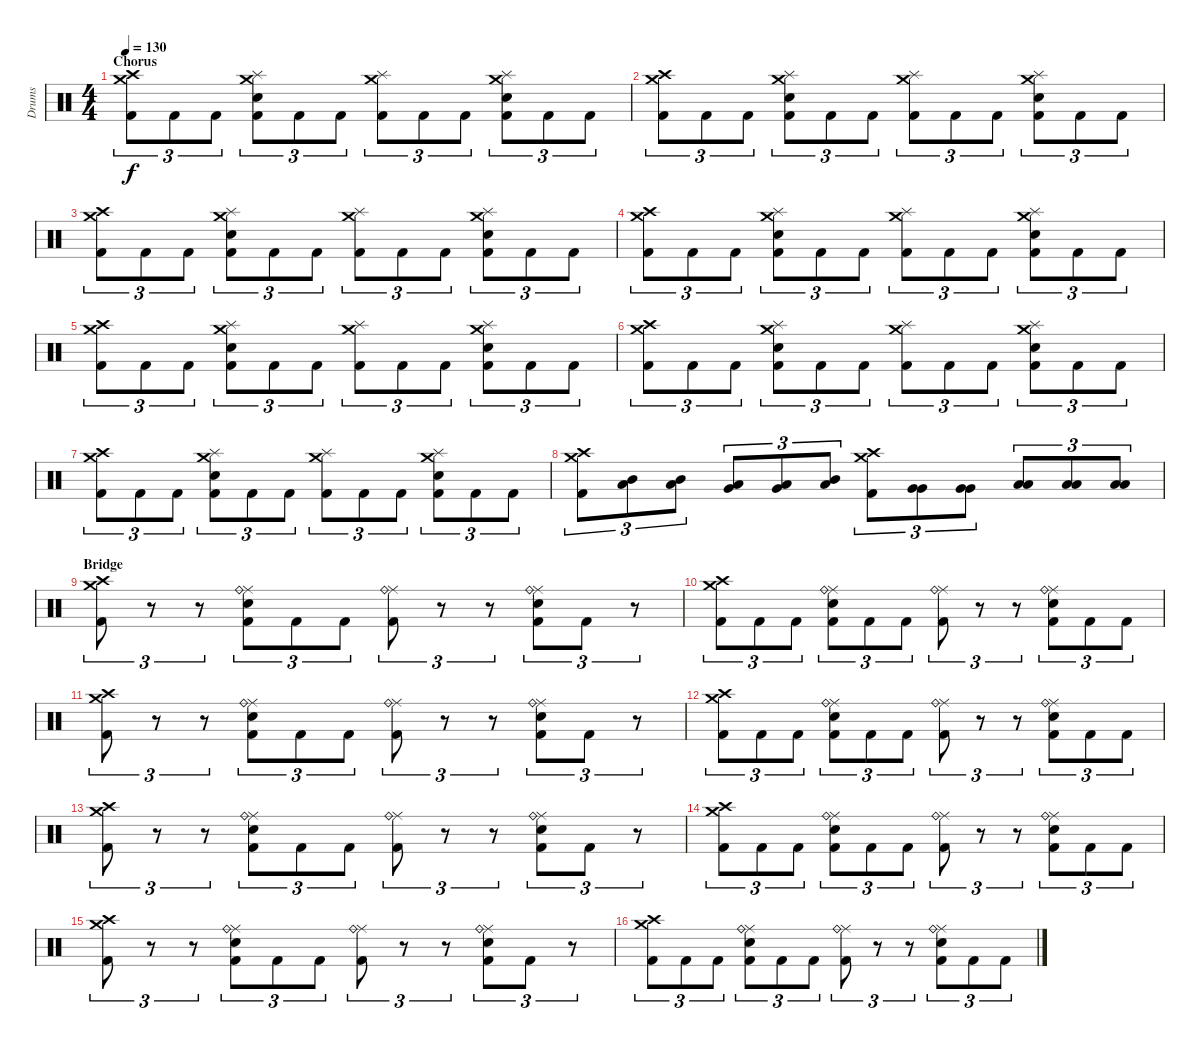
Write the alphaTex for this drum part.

\track ("Drums" "Drums") {instrument percussion}
\staff {score}
\articulation defaults
\ts (4 4)
\section ("" "Chorus")
\tempo 130
\clef neutral
\ks c
("Crash medium (hit)" "Crash high (hit)" "Kick (hit) 2").8{tu (3 2) dy f} "Kick (hit) 2".8{tu (3 2)} "Kick (hit) 2".8{tu (3 2)} ("Crash medium (hit)" "Splash (hit)" "Snare (hit) 2" "Kick (hit) 2").8{tu (3 2)} "Kick (hit) 2".8{tu (3 2)} "Kick (hit) 2".8{tu (3 2)} ("Crash medium (hit)" "Splash (hit)" "Kick (hit) 2").8{tu (3 2)} "Kick (hit) 2".8{tu (3 2)} "Kick (hit) 2".8{tu (3 2)} ("Crash medium (hit)" "Splash (hit)" "Snare (hit) 2" "Kick (hit) 2").8{tu (3 2)} "Kick (hit) 2".8{tu (3 2)} "Kick (hit) 2".8{tu (3 2)} |
("Crash medium (hit)" "Crash high (hit)" "Kick (hit) 2").8{tu (3 2)} "Kick (hit) 2".8{tu (3 2)} "Kick (hit) 2".8{tu (3 2)} ("Crash medium (hit)" "Splash (hit)" "Snare (hit) 2" "Kick (hit) 2").8{tu (3 2)} "Kick (hit) 2".8{tu (3 2)} "Kick (hit) 2".8{tu (3 2)} ("Crash medium (hit)" "Splash (hit)" "Kick (hit) 2").8{tu (3 2)} "Kick (hit) 2".8{tu (3 2)} "Kick (hit) 2".8{tu (3 2)} ("Crash medium (hit)" "Splash (hit)" "Snare (hit) 2" "Kick (hit) 2").8{tu (3 2)} "Kick (hit) 2".8{tu (3 2)} "Kick (hit) 2".8{tu (3 2)} |
("Crash medium (hit)" "Crash high (hit)" "Kick (hit) 2").8{tu (3 2)} "Kick (hit) 2".8{tu (3 2)} "Kick (hit) 2".8{tu (3 2)} ("Crash medium (hit)" "Splash (hit)" "Snare (hit) 2" "Kick (hit) 2").8{tu (3 2)} "Kick (hit) 2".8{tu (3 2)} "Kick (hit) 2".8{tu (3 2)} ("Crash medium (hit)" "Splash (hit)" "Kick (hit) 2").8{tu (3 2)} "Kick (hit) 2".8{tu (3 2)} "Kick (hit) 2".8{tu (3 2)} ("Crash medium (hit)" "Splash (hit)" "Snare (hit) 2" "Kick (hit) 2").8{tu (3 2)} "Kick (hit) 2".8{tu (3 2)} "Kick (hit) 2".8{tu (3 2)} |
("Crash medium (hit)" "Crash high (hit)" "Kick (hit) 2").8{tu (3 2)} "Kick (hit) 2".8{tu (3 2)} "Kick (hit) 2".8{tu (3 2)} ("Crash medium (hit)" "Splash (hit)" "Snare (hit) 2" "Kick (hit) 2").8{tu (3 2)} "Kick (hit) 2".8{tu (3 2)} "Kick (hit) 2".8{tu (3 2)} ("Crash medium (hit)" "Splash (hit)" "Kick (hit) 2").8{tu (3 2)} "Kick (hit) 2".8{tu (3 2)} "Kick (hit) 2".8{tu (3 2)} ("Crash medium (hit)" "Splash (hit)" "Snare (hit) 2" "Kick (hit) 2").8{tu (3 2)} "Kick (hit) 2".8{tu (3 2)} "Kick (hit) 2".8{tu (3 2)} |
("Crash medium (hit)" "Crash high (hit)" "Kick (hit) 2").8{tu (3 2)} "Kick (hit) 2".8{tu (3 2)} "Kick (hit) 2".8{tu (3 2)} ("Crash medium (hit)" "Splash (hit)" "Snare (hit) 2" "Kick (hit) 2").8{tu (3 2)} "Kick (hit) 2".8{tu (3 2)} "Kick (hit) 2".8{tu (3 2)} ("Crash medium (hit)" "Splash (hit)" "Kick (hit) 2").8{tu (3 2)} "Kick (hit) 2".8{tu (3 2)} "Kick (hit) 2".8{tu (3 2)} ("Crash medium (hit)" "Splash (hit)" "Snare (hit) 2" "Kick (hit) 2").8{tu (3 2)} "Kick (hit) 2".8{tu (3 2)} "Kick (hit) 2".8{tu (3 2)} |
("Crash medium (hit)" "Crash high (hit)" "Kick (hit) 2").8{tu (3 2)} "Kick (hit) 2".8{tu (3 2)} "Kick (hit) 2".8{tu (3 2)} ("Crash medium (hit)" "Splash (hit)" "Snare (hit) 2" "Kick (hit) 2").8{tu (3 2)} "Kick (hit) 2".8{tu (3 2)} "Kick (hit) 2".8{tu (3 2)} ("Crash medium (hit)" "Splash (hit)" "Kick (hit) 2").8{tu (3 2)} "Kick (hit) 2".8{tu (3 2)} "Kick (hit) 2".8{tu (3 2)} ("Crash medium (hit)" "Splash (hit)" "Snare (hit) 2" "Kick (hit) 2").8{tu (3 2)} "Kick (hit) 2".8{tu (3 2)} "Kick (hit) 2".8{tu (3 2)} |
("Crash medium (hit)" "Crash high (hit)" "Kick (hit) 2").8{tu (3 2)} "Kick (hit) 2".8{tu (3 2)} "Kick (hit) 2".8{tu (3 2)} ("Crash medium (hit)" "Splash (hit)" "Snare (hit) 2" "Kick (hit) 2").8{tu (3 2)} "Kick (hit) 2".8{tu (3 2)} "Kick (hit) 2".8{tu (3 2)} ("Crash medium (hit)" "Splash (hit)" "Kick (hit) 2").8{tu (3 2)} "Kick (hit) 2".8{tu (3 2)} "Kick (hit) 2".8{tu (3 2)} ("Crash medium (hit)" "Splash (hit)" "Snare (hit) 2" "Kick (hit) 2").8{tu (3 2)} "Kick (hit) 2".8{tu (3 2)} "Kick (hit) 2".8{tu (3 2)} |
("Crash medium (hit)" "Crash high (hit)" "Kick (hit) 2").8{tu (3 2)} ("Mid Tom (hit)" "Low Tom (hit)").8{tu (3 2)} ("Mid Tom (hit)" "Low Tom (hit)").8{tu (3 2)} ("Low Tom (hit)" "Very Low Tom (hit)").8{tu (3 2)} ("Low Tom (hit)" "Very Low Tom (hit)").8{tu (3 2)} ("Mid Tom (hit)" "Low Tom (hit)").8{tu (3 2)} ("Crash high (hit)" "Crash medium (hit)" "Kick (hit) 2").8{tu (3 2)} ("Very Low Tom (hit)" "Very Low Tom (hit)").8{tu (3 2)} ("Very Low Tom (hit)" "Very Low Tom (hit)").8{tu (3 2)} ("Low Floor Tom (hit)" "Low Floor Tom (hit)").8{tu (3 2)} ("Low Floor Tom (hit)" "Low Floor Tom (hit)").8{tu (3 2)} ("Low Floor Tom (hit)" "Low Floor Tom (hit)").8{tu (3 2)} |
\section ("" "Bridge")
("Crash medium (hit)" "Crash high (hit)" "Kick (hit) 2").8{tu (3 2)} r.8{tu (3 2)} r.8{tu (3 2)} ("Ride (middle)" "Ride (bell)" "Snare (hit) 2" "Kick (hit) 2").8{tu (3 2)} "Kick (hit) 2".8{tu (3 2)} "Kick (hit) 2".8{tu (3 2)} ("Ride (middle)" "Ride (bell)" "Kick (hit) 2").8{tu (3 2)} r.8{tu (3 2)} r.8{tu (3 2)} ("Ride (middle)" "Ride (bell)" "Snare (hit) 2" "Kick (hit) 2").8{tu (3 2)} "Kick (hit) 2".8{tu (3 2)} r.8{tu (3 2)} |
("Crash medium (hit)" "Crash high (hit)" "Kick (hit) 2").8{tu (3 2)} "Kick (hit) 2".8{tu (3 2)} "Kick (hit) 2".8{tu (3 2)} ("Ride (middle)" "Ride (bell)" "Snare (hit) 2" "Kick (hit) 2").8{tu (3 2)} "Kick (hit) 2".8{tu (3 2)} "Kick (hit) 2".8{tu (3 2)} ("Ride (middle)" "Ride (bell)" "Kick (hit) 2").8{tu (3 2)} r.8{tu (3 2)} r.8{tu (3 2)} ("Ride (middle)" "Ride (bell)" "Snare (hit) 2" "Kick (hit) 2").8{tu (3 2)} "Kick (hit) 2".8{tu (3 2)} "Kick (hit) 2".8{tu (3 2)} |
("Crash medium (hit)" "Crash high (hit)" "Kick (hit) 2").8{tu (3 2)} r.8{tu (3 2)} r.8{tu (3 2)} ("Ride (middle)" "Ride (bell)" "Snare (hit) 2" "Kick (hit) 2").8{tu (3 2)} "Kick (hit) 2".8{tu (3 2)} "Kick (hit) 2".8{tu (3 2)} ("Ride (middle)" "Ride (bell)" "Kick (hit) 2").8{tu (3 2)} r.8{tu (3 2)} r.8{tu (3 2)} ("Ride (middle)" "Ride (bell)" "Snare (hit) 2" "Kick (hit) 2").8{tu (3 2)} "Kick (hit) 2".8{tu (3 2)} r.8{tu (3 2)} |
("Crash medium (hit)" "Crash high (hit)" "Kick (hit) 2").8{tu (3 2)} "Kick (hit) 2".8{tu (3 2)} "Kick (hit) 2".8{tu (3 2)} ("Ride (middle)" "Ride (bell)" "Snare (hit) 2" "Kick (hit) 2").8{tu (3 2)} "Kick (hit) 2".8{tu (3 2)} "Kick (hit) 2".8{tu (3 2)} ("Ride (middle)" "Ride (bell)" "Kick (hit) 2").8{tu (3 2)} r.8{tu (3 2)} r.8{tu (3 2)} ("Ride (middle)" "Ride (bell)" "Snare (hit) 2" "Kick (hit) 2").8{tu (3 2)} "Kick (hit) 2".8{tu (3 2)} "Kick (hit) 2".8{tu (3 2)} |
("Crash medium (hit)" "Crash high (hit)" "Kick (hit) 2").8{tu (3 2)} r.8{tu (3 2)} r.8{tu (3 2)} ("Ride (middle)" "Ride (bell)" "Snare (hit) 2" "Kick (hit) 2").8{tu (3 2)} "Kick (hit) 2".8{tu (3 2)} "Kick (hit) 2".8{tu (3 2)} ("Ride (middle)" "Ride (bell)" "Kick (hit) 2").8{tu (3 2)} r.8{tu (3 2)} r.8{tu (3 2)} ("Ride (middle)" "Ride (bell)" "Snare (hit) 2" "Kick (hit) 2").8{tu (3 2)} "Kick (hit) 2".8{tu (3 2)} r.8{tu (3 2)} |
("Crash medium (hit)" "Crash high (hit)" "Kick (hit) 2").8{tu (3 2)} "Kick (hit) 2".8{tu (3 2)} "Kick (hit) 2".8{tu (3 2)} ("Ride (middle)" "Ride (bell)" "Snare (hit) 2" "Kick (hit) 2").8{tu (3 2)} "Kick (hit) 2".8{tu (3 2)} "Kick (hit) 2".8{tu (3 2)} ("Ride (middle)" "Ride (bell)" "Kick (hit) 2").8{tu (3 2)} r.8{tu (3 2)} r.8{tu (3 2)} ("Ride (middle)" "Ride (bell)" "Snare (hit) 2" "Kick (hit) 2").8{tu (3 2)} "Kick (hit) 2".8{tu (3 2)} "Kick (hit) 2".8{tu (3 2)} |
("Crash medium (hit)" "Crash high (hit)" "Kick (hit) 2").8{tu (3 2)} r.8{tu (3 2)} r.8{tu (3 2)} ("Ride (middle)" "Ride (bell)" "Snare (hit) 2" "Kick (hit) 2").8{tu (3 2)} "Kick (hit) 2".8{tu (3 2)} "Kick (hit) 2".8{tu (3 2)} ("Ride (middle)" "Ride (bell)" "Kick (hit) 2").8{tu (3 2)} r.8{tu (3 2)} r.8{tu (3 2)} ("Ride (middle)" "Ride (bell)" "Snare (hit) 2" "Kick (hit) 2").8{tu (3 2)} "Kick (hit) 2".8{tu (3 2)} r.8{tu (3 2)} |
("Crash medium (hit)" "Crash high (hit)" "Kick (hit) 2").8{tu (3 2)} "Kick (hit) 2".8{tu (3 2)} "Kick (hit) 2".8{tu (3 2)} ("Ride (middle)" "Ride (bell)" "Snare (hit) 2" "Kick (hit) 2").8{tu (3 2)} "Kick (hit) 2".8{tu (3 2)} "Kick (hit) 2".8{tu (3 2)} ("Ride (middle)" "Ride (bell)" "Kick (hit) 2").8{tu (3 2)} r.8{tu (3 2)} r.8{tu (3 2)} ("Ride (middle)" "Ride (bell)" "Snare (hit) 2" "Kick (hit) 2").8{tu (3 2)} "Kick (hit) 2".8{tu (3 2)} "Kick (hit) 2".8{tu (3 2)}
